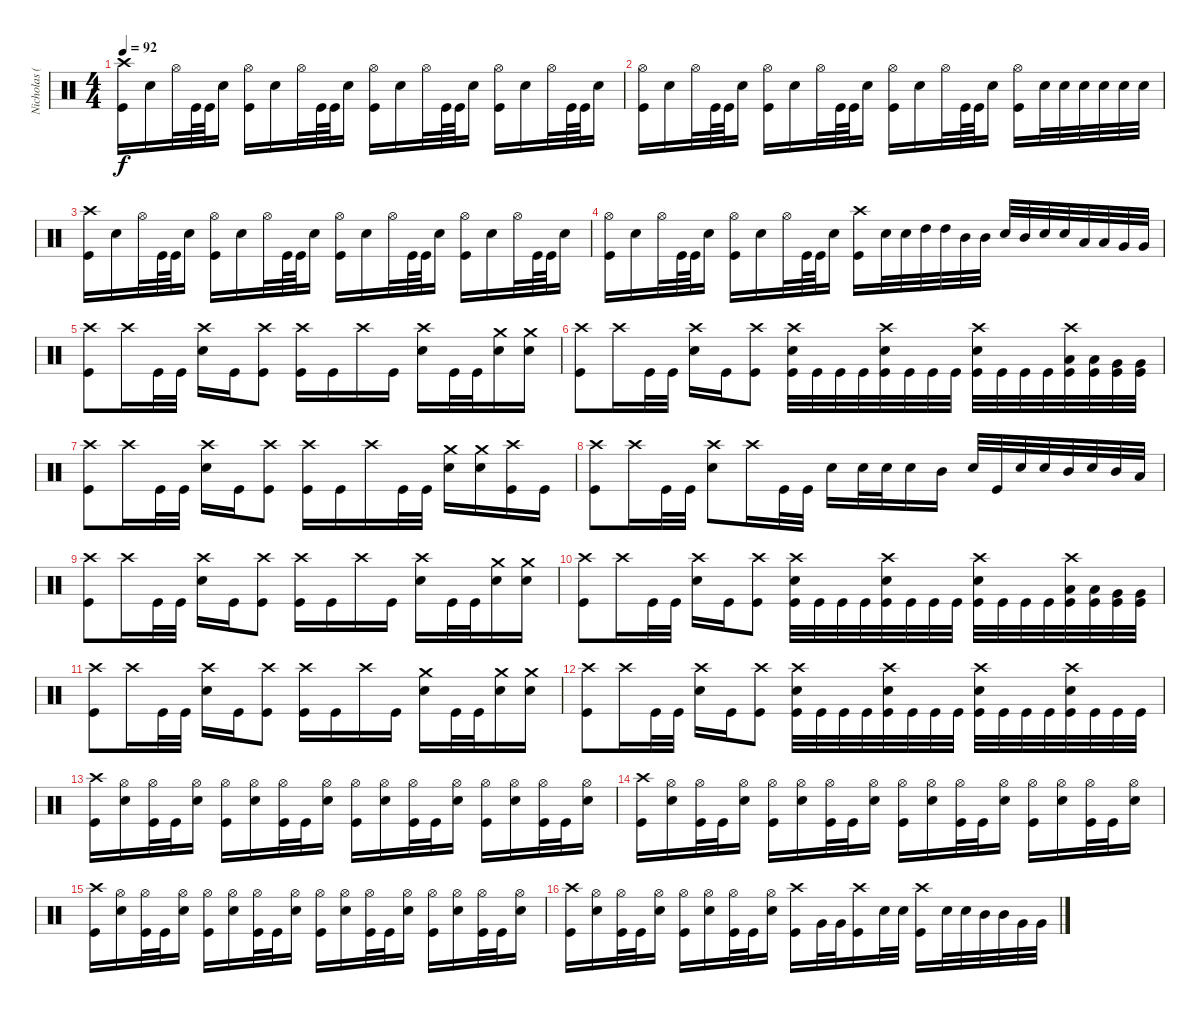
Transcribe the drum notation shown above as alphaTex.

\track ("Nicholas (Drums)" "Nicholas (") {instrument percussion}
\staff {score}
\articulation defaults
\ts (4 4)
\tempo 92
\clef neutral
\ks c
("Crash high (hit)" "Kick (hit)").16{dy f} "Electric Snare (hit)".16 "Hi-Hat (open)".32 "Kick (hit)".64 "Kick (hit)".64 "Electric Snare (hit)".16 ("Hi-Hat (open)" "Kick (hit)").16 "Electric Snare (hit)".16 "Hi-Hat (open)".32 "Kick (hit)".64 "Kick (hit)".64 "Electric Snare (hit)".16 ("Hi-Hat (open)" "Kick (hit)").16 "Electric Snare (hit)".16 "Hi-Hat (open)".32 "Kick (hit)".64 "Kick (hit)".64 "Electric Snare (hit)".16 ("Hi-Hat (open)" "Kick (hit)").16 "Electric Snare (hit)".16 "Hi-Hat (open)".32 "Kick (hit)".64 "Kick (hit)".64 "Electric Snare (hit)".16 |
("Hi-Hat (open)" "Kick (hit)").16 "Electric Snare (hit)".16 "Hi-Hat (open)".32 "Kick (hit)".64 "Kick (hit)".64 "Electric Snare (hit)".16 ("Hi-Hat (open)" "Kick (hit)").16 "Electric Snare (hit)".16 "Hi-Hat (open)".32 "Kick (hit)".64 "Kick (hit)".64 "Electric Snare (hit)".16 ("Hi-Hat (open)" "Kick (hit)").16 "Electric Snare (hit)".16 "Hi-Hat (open)".32 "Kick (hit)".64 "Kick (hit)".64 "Electric Snare (hit)".16 ("Hi-Hat (open)" "Kick (hit)").16 "Electric Snare (hit)".32 "Electric Snare (hit)".32 "Electric Snare (hit)".32 "Electric Snare (hit)".32 "Electric Snare (hit)".32 "Electric Snare (hit)".32 |
("Crash high (hit)" "Kick (hit)").16 "Electric Snare (hit)".16 "Hi-Hat (open)".32 "Kick (hit)".64 "Kick (hit)".64 "Electric Snare (hit)".16 ("Hi-Hat (open)" "Kick (hit)").16 "Electric Snare (hit)".16 "Hi-Hat (open)".32 "Kick (hit)".64 "Kick (hit)".64 "Electric Snare (hit)".16 ("Hi-Hat (open)" "Kick (hit)").16 "Electric Snare (hit)".16 "Hi-Hat (open)".32 "Kick (hit)".64 "Kick (hit)".64 "Electric Snare (hit)".16 ("Hi-Hat (open)" "Kick (hit)").16 "Electric Snare (hit)".16 "Hi-Hat (open)".32 "Kick (hit)".64 "Kick (hit)".64 "Electric Snare (hit)".16 |
("Hi-Hat (open)" "Kick (hit)").16 "Electric Snare (hit)".16 "Hi-Hat (open)".32 "Kick (hit)".64 "Kick (hit)".64 "Electric Snare (hit)".16 ("Hi-Hat (open)" "Kick (hit)").16 "Electric Snare (hit)".16 "Hi-Hat (open)".32 "Kick (hit)".64 "Kick (hit)".64 "Electric Snare (hit)".16 ("Crash high (hit)" "Kick (hit)").16 "Electric Snare (hit)".32 "Electric Snare (hit)".32 "High Tom (hit)".32 "High Tom (hit)".32 "Mid Tom (hit)".32 "Mid Tom (hit)".32 "Electric Snare (hit)".32 "Mid Tom (hit)".32 "Electric Snare (hit)".32 "Electric Snare (hit)".32 "Low Tom (hit)".32 "Low Tom (hit)".32 "Very Low Tom (hit)".32 "Very Low Tom (hit)".32 |
("Crash high (hit)" "Kick (hit)").8 "Crash high (hit)".16 "Kick (hit)".32 "Kick (hit)".32 ("Crash high (hit)" "Electric Snare (hit)").16 "Kick (hit)".16 ("Crash high (hit)" "Kick (hit)").8 ("Crash high (hit)" "Kick (hit)").16 "Kick (hit)".16 "Crash high (hit)".16 "Kick (hit)".16 ("Crash high (hit)" "Electric Snare (hit)").16 "Kick (hit)".32 "Kick (hit)".32 ("Crash medium (hit)" "Electric Snare (hit)").16 ("Crash medium (hit)" "Electric Snare (hit)").16 |
("Crash high (hit)" "Kick (hit)").8 "Crash high (hit)".16 "Kick (hit)".32 "Kick (hit)".32 ("Crash high (hit)" "Electric Snare (hit)").16 "Kick (hit)".16 ("Crash high (hit)" "Kick (hit)").8 ("Crash high (hit)" "Electric Snare (hit)" "Kick (hit)").32 "Kick (hit)".32 "Kick (hit)".32 "Kick (hit)".32 ("Crash high (hit)" "Electric Snare (hit)" "Kick (hit)").32 "Kick (hit)".32 "Kick (hit)".32 "Kick (hit)".32 ("Crash high (hit)" "Electric Snare (hit)" "Kick (hit)").32 "Kick (hit)".32 "Kick (hit)".32 "Kick (hit)".32 ("Crash high (hit)" "Low Tom (hit)" "Kick (hit)").32 ("Low Tom (hit)" "Kick (hit)").32 ("Very Low Tom (hit)" "Kick (hit)").32 ("Very Low Tom (hit)" "Kick (hit)").32 |
("Crash high (hit)" "Kick (hit)").8 "Crash high (hit)".16 "Kick (hit)".32 "Kick (hit)".32 ("Crash high (hit)" "Electric Snare (hit)").16 "Kick (hit)".16 ("Crash high (hit)" "Kick (hit)").8 ("Crash high (hit)" "Kick (hit)").16 "Kick (hit)".16 "Crash high (hit)".16 "Kick (hit)".32 "Kick (hit)".32 ("Crash medium (hit)" "Electric Snare (hit)").16 ("Crash medium (hit)" "Electric Snare (hit)").16 ("Crash high (hit)" "Kick (hit)").16 "Kick (hit)".16 |
("Crash high (hit)" "Kick (hit)").8 "Crash high (hit)".16 "Kick (hit)".32 "Kick (hit)".32 ("Crash high (hit)" "Electric Snare (hit)").8 "Crash high (hit)".16 "Kick (hit)".32 "Kick (hit)".32 "Electric Snare (hit)".16 "Electric Snare (hit)".32 "Electric Snare (hit)".32 "Electric Snare (hit)".16 "Mid Tom (hit)".16 "Electric Snare (hit)".32 "Kick (hit)".32 "Electric Snare (hit)".32 "Electric Snare (hit)".32 "Mid Tom (hit)".32 "Electric Snare (hit)".32 "Mid Tom (hit)".32 "Low Tom (hit)".32 |
("Crash high (hit)" "Kick (hit)").8 "Crash high (hit)".16 "Kick (hit)".32 "Kick (hit)".32 ("Crash high (hit)" "Electric Snare (hit)").16 "Kick (hit)".16 ("Crash high (hit)" "Kick (hit)").8 ("Crash high (hit)" "Kick (hit)").16 "Kick (hit)".16 "Crash high (hit)".16 "Kick (hit)".16 ("Crash high (hit)" "Electric Snare (hit)").16 "Kick (hit)".32 "Kick (hit)".32 ("Crash medium (hit)" "Electric Snare (hit)").16 ("Crash medium (hit)" "Electric Snare (hit)").16 |
("Crash high (hit)" "Kick (hit)").8 "Crash high (hit)".16 "Kick (hit)".32 "Kick (hit)".32 ("Crash high (hit)" "Electric Snare (hit)").16 "Kick (hit)".16 ("Crash high (hit)" "Kick (hit)").8 ("Crash high (hit)" "Electric Snare (hit)" "Kick (hit)").32 "Kick (hit)".32 "Kick (hit)".32 "Kick (hit)".32 ("Crash high (hit)" "Electric Snare (hit)" "Kick (hit)").32 "Kick (hit)".32 "Kick (hit)".32 "Kick (hit)".32 ("Crash high (hit)" "Electric Snare (hit)" "Kick (hit)").32 "Kick (hit)".32 "Kick (hit)".32 "Kick (hit)".32 ("Crash high (hit)" "Low Tom (hit)" "Kick (hit)").32 ("Low Tom (hit)" "Kick (hit)").32 ("Very Low Tom (hit)" "Kick (hit)").32 ("Very Low Tom (hit)" "Kick (hit)").32 |
("Crash high (hit)" "Kick (hit)").8 "Crash high (hit)".16 "Kick (hit)".32 "Kick (hit)".32 ("Crash high (hit)" "Electric Snare (hit)").16 "Kick (hit)".16 ("Crash high (hit)" "Kick (hit)").8 ("Crash high (hit)" "Kick (hit)").16 "Kick (hit)".16 "Crash high (hit)".16 "Kick (hit)".16 ("Crash medium (hit)" "Electric Snare (hit)").16 "Kick (hit)".32 "Kick (hit)".32 ("Crash medium (hit)" "Electric Snare (hit)").16 ("Crash medium (hit)" "Electric Snare (hit)").16 |
("Crash high (hit)" "Kick (hit)").8 "Crash high (hit)".16 "Kick (hit)".32 "Kick (hit)".32 ("Crash high (hit)" "Electric Snare (hit)").16 "Kick (hit)".16 ("Crash high (hit)" "Kick (hit)").8 ("Crash high (hit)" "Electric Snare (hit)" "Kick (hit)").32 "Kick (hit)".32 "Kick (hit)".32 "Kick (hit)".32 ("Crash high (hit)" "Electric Snare (hit)" "Kick (hit)").32 "Kick (hit)".32 "Kick (hit)".32 "Kick (hit)".32 ("Crash high (hit)" "Electric Snare (hit)" "Kick (hit)").32 "Kick (hit)".32 "Kick (hit)".32 "Kick (hit)".32 ("Crash high (hit)" "Electric Snare (hit)" "Kick (hit)").32 "Kick (hit)".32 "Kick (hit)".32 "Kick (hit)".32 |
("Crash high (hit)" "Kick (hit)").16 ("Hi-Hat (open)" "Electric Snare (hit)").16 ("Hi-Hat (open)" "Kick (hit)").32 "Kick (hit)".32 ("Hi-Hat (open)" "Electric Snare (hit)").16 ("Hi-Hat (open)" "Kick (hit)").16 ("Hi-Hat (open)" "Electric Snare (hit)").16 ("Hi-Hat (open)" "Kick (hit)").32 "Kick (hit)".32 ("Hi-Hat (open)" "Electric Snare (hit)").16 ("Hi-Hat (open)" "Kick (hit)").16 ("Hi-Hat (open)" "Electric Snare (hit)").16 ("Hi-Hat (open)" "Kick (hit)").32 "Kick (hit)".32 ("Hi-Hat (open)" "Electric Snare (hit)").16 ("Hi-Hat (open)" "Kick (hit)").16 ("Hi-Hat (open)" "Electric Snare (hit)").16 ("Hi-Hat (open)" "Kick (hit)").32 "Kick (hit)".32 ("Hi-Hat (open)" "Electric Snare (hit)").16 |
("Crash high (hit)" "Kick (hit)").16 ("Hi-Hat (open)" "Electric Snare (hit)").16 ("Hi-Hat (open)" "Kick (hit)").32 "Kick (hit)".32 ("Hi-Hat (open)" "Electric Snare (hit)").16 ("Hi-Hat (open)" "Kick (hit)").16 ("Hi-Hat (open)" "Electric Snare (hit)").16 ("Hi-Hat (open)" "Kick (hit)").32 "Kick (hit)".32 ("Hi-Hat (open)" "Electric Snare (hit)").16 ("Hi-Hat (open)" "Kick (hit)").16 ("Hi-Hat (open)" "Electric Snare (hit)").16 ("Hi-Hat (open)" "Kick (hit)").32 "Kick (hit)".32 ("Hi-Hat (open)" "Electric Snare (hit)").16 ("Hi-Hat (open)" "Kick (hit)").16 ("Hi-Hat (open)" "Electric Snare (hit)").16 ("Hi-Hat (open)" "Kick (hit)").32 "Kick (hit)".32 ("Hi-Hat (open)" "Electric Snare (hit)").16 |
("Crash high (hit)" "Kick (hit)").16 ("Hi-Hat (open)" "Electric Snare (hit)").16 ("Hi-Hat (open)" "Kick (hit)").32 "Kick (hit)".32 ("Hi-Hat (open)" "Electric Snare (hit)").16 ("Hi-Hat (open)" "Kick (hit)").16 ("Hi-Hat (open)" "Electric Snare (hit)").16 ("Hi-Hat (open)" "Kick (hit)").32 "Kick (hit)".32 ("Hi-Hat (open)" "Electric Snare (hit)").16 ("Hi-Hat (open)" "Kick (hit)").16 ("Hi-Hat (open)" "Electric Snare (hit)").16 ("Hi-Hat (open)" "Kick (hit)").32 "Kick (hit)".32 ("Hi-Hat (open)" "Electric Snare (hit)").16 ("Hi-Hat (open)" "Kick (hit)").16 ("Hi-Hat (open)" "Electric Snare (hit)").16 ("Hi-Hat (open)" "Kick (hit)").32 "Kick (hit)".32 ("Hi-Hat (open)" "Electric Snare (hit)").16 |
("Crash high (hit)" "Kick (hit)").16 ("Hi-Hat (open)" "Electric Snare (hit)").16 ("Hi-Hat (open)" "Kick (hit)").32 "Kick (hit)".32 ("Hi-Hat (open)" "Electric Snare (hit)").16 ("Hi-Hat (open)" "Kick (hit)").16 ("Hi-Hat (open)" "Electric Snare (hit)").16 ("Hi-Hat (open)" "Kick (hit)").32 "Kick (hit)".32 ("Hi-Hat (open)" "Electric Snare (hit)").16 ("Crash high (hit)" "Kick (hit)").16 "Very Low Tom (hit)".32 "Very Low Tom (hit)".32 ("Crash high (hit)" "Kick (hit)").16 "Electric Snare (hit)".32 "Electric Snare (hit)".32 ("Crash high (hit)" "Kick (hit)").16 "Electric Snare (hit)".32 "Electric Snare (hit)".32 "Mid Tom (hit)".32 "Mid Tom (hit)".32 "Very Low Tom (hit)".32 "Very Low Tom (hit)".32
